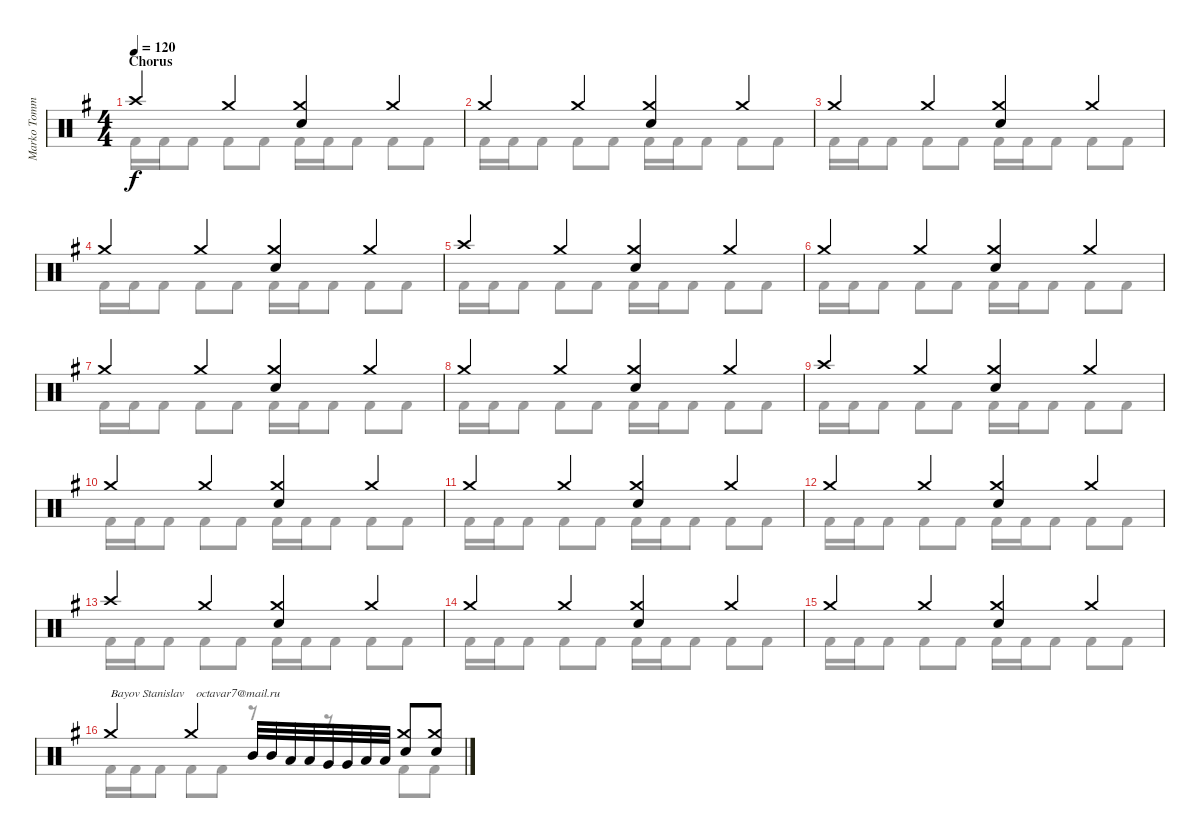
\track ("Marko Tommila (drums)" "Marko Tomm") {instrument percussion}
\staff {score}
\articulation defaults
\voice
\ts (4 4)
\section ("" "Chorus")
\tempo 120
\clef neutral
\ks eminor "Crash high (hit)".4{dy f} "Crash medium (hit)".4
("Crash medium (hit)" "Electric Snare (hit)").4 "Crash medium (hit)".4 |
"Crash medium (hit)".4 "Crash medium (hit)".4 ("Crash medium (hit)" "Electric Snare (hit)").4 "Crash medium (hit)".4 |
"Crash medium (hit)".4 "Crash medium (hit)".4 ("Crash medium (hit)" "Electric Snare (hit)").4 "Crash medium (hit)".4 |
"Crash medium (hit)".4 "Crash medium (hit)".4 ("Crash medium (hit)" "Electric Snare (hit)").4 "Crash medium (hit)".4 |
"Crash high (hit)".4 "Crash medium (hit)".4 ("Crash medium (hit)" "Electric Snare (hit)").4 "Crash medium (hit)".4 |
"Crash medium (hit)".4 "Crash medium (hit)".4 ("Crash medium (hit)" "Electric Snare (hit)").4 "Crash medium (hit)".4 |
"Crash medium (hit)".4 "Crash medium (hit)".4 ("Crash medium (hit)" "Electric Snare (hit)").4 "Crash medium (hit)".4 |
"Crash medium (hit)".4 "Crash medium (hit)".4 ("Crash medium (hit)" "Electric Snare (hit)").4 "Crash medium (hit)".4 |
"Crash high (hit)".4 "Crash medium (hit)".4 ("Crash medium (hit)" "Electric Snare (hit)").4 "Crash medium (hit)".4 |
"Crash medium (hit)".4 "Crash medium (hit)".4 ("Crash medium (hit)" "Electric Snare (hit)").4 "Crash medium (hit)".4 |
"Crash medium (hit)".4 "Crash medium (hit)".4 ("Crash medium (hit)" "Electric Snare (hit)").4 "Crash medium (hit)".4 |
"Crash medium (hit)".4 "Crash medium (hit)".4 ("Crash medium (hit)" "Electric Snare (hit)").4 "Crash medium (hit)".4 |
"Crash high (hit)".4 "Crash medium (hit)".4 ("Crash medium (hit)" "Electric Snare (hit)").4 "Crash medium (hit)".4 |
"Crash medium (hit)".4 "Crash medium (hit)".4 ("Crash medium (hit)" "Electric Snare (hit)").4 "Crash medium (hit)".4 |
"Crash medium (hit)".4 "Crash medium (hit)".4 ("Crash medium (hit)" "Electric Snare (hit)").4 "Crash medium (hit)".4 |
"Crash medium (hit)".4{txt "Bayov Stanislav    octavar7@mail.ru"} "Crash medium (hit)".4 "Mid Tom (hit)".32 "Mid Tom (hit)".32 "Low Tom (hit)".32 "Low Tom (hit)".32 "Very Low Tom (hit)".32 "Very Low Tom (hit)".32 "Low Floor Tom (hit)".32 "Low Floor Tom (hit)".32 ("Crash medium (hit)" "Electric Snare (hit)").8 ("Crash medium (hit)" "Electric Snare (hit)").8
\voice
\clef neutral
\ottava regular
\simile none
\ks eminor "Kick (hit) 2".16{dy f} "Kick (hit) 2".16 "Kick (hit) 2".8 "Kick (hit) 2".8 "Kick (hit) 2".8 "Kick (hit) 2".16 "Kick (hit) 2".16 "Kick (hit) 2".8 "Kick (hit) 2".8 "Kick (hit) 2".8
|
"Kick (hit) 2".16 "Kick (hit) 2".16 "Kick (hit) 2".8 "Kick (hit) 2".8 "Kick (hit) 2".8 "Kick (hit) 2".16 "Kick (hit) 2".16 "Kick (hit) 2".8 "Kick (hit) 2".8 "Kick (hit) 2".8 |
"Kick (hit) 2".16 "Kick (hit) 2".16 "Kick (hit) 2".8 "Kick (hit) 2".8 "Kick (hit) 2".8 "Kick (hit) 2".16 "Kick (hit) 2".16 "Kick (hit) 2".8 "Kick (hit) 2".8 "Kick (hit) 2".8 |
"Kick (hit) 2".16 "Kick (hit) 2".16 "Kick (hit) 2".8 "Kick (hit) 2".8 "Kick (hit) 2".8 "Kick (hit) 2".16 "Kick (hit) 2".16 "Kick (hit) 2".8 "Kick (hit) 2".8 "Kick (hit) 2".8 |
"Kick (hit) 2".16 "Kick (hit) 2".16 "Kick (hit) 2".8 "Kick (hit) 2".8 "Kick (hit) 2".8 "Kick (hit) 2".16 "Kick (hit) 2".16 "Kick (hit) 2".8 "Kick (hit) 2".8 "Kick (hit) 2".8 |
"Kick (hit) 2".16 "Kick (hit) 2".16 "Kick (hit) 2".8 "Kick (hit) 2".8 "Kick (hit) 2".8 "Kick (hit) 2".16 "Kick (hit) 2".16 "Kick (hit) 2".8 "Kick (hit) 2".8 "Kick (hit) 2".8 |
"Kick (hit) 2".16 "Kick (hit) 2".16 "Kick (hit) 2".8 "Kick (hit) 2".8 "Kick (hit) 2".8 "Kick (hit) 2".16 "Kick (hit) 2".16 "Kick (hit) 2".8 "Kick (hit) 2".8 "Kick (hit) 2".8 |
"Kick (hit) 2".16 "Kick (hit) 2".16 "Kick (hit) 2".8 "Kick (hit) 2".8 "Kick (hit) 2".8 "Kick (hit) 2".16 "Kick (hit) 2".16 "Kick (hit) 2".8 "Kick (hit) 2".8 "Kick (hit) 2".8 |
"Kick (hit) 2".16 "Kick (hit) 2".16 "Kick (hit) 2".8 "Kick (hit) 2".8 "Kick (hit) 2".8 "Kick (hit) 2".16 "Kick (hit) 2".16 "Kick (hit) 2".8 "Kick (hit) 2".8 "Kick (hit) 2".8 |
"Kick (hit) 2".16 "Kick (hit) 2".16 "Kick (hit) 2".8 "Kick (hit) 2".8 "Kick (hit) 2".8 "Kick (hit) 2".16 "Kick (hit) 2".16 "Kick (hit) 2".8 "Kick (hit) 2".8 "Kick (hit) 2".8 |
"Kick (hit) 2".16 "Kick (hit) 2".16 "Kick (hit) 2".8 "Kick (hit) 2".8 "Kick (hit) 2".8 "Kick (hit) 2".16 "Kick (hit) 2".16 "Kick (hit) 2".8 "Kick (hit) 2".8 "Kick (hit) 2".8 |
"Kick (hit) 2".16 "Kick (hit) 2".16 "Kick (hit) 2".8 "Kick (hit) 2".8 "Kick (hit) 2".8 "Kick (hit) 2".16 "Kick (hit) 2".16 "Kick (hit) 2".8 "Kick (hit) 2".8 "Kick (hit) 2".8 |
"Kick (hit) 2".16 "Kick (hit) 2".16 "Kick (hit) 2".8 "Kick (hit) 2".8 "Kick (hit) 2".8 "Kick (hit) 2".16 "Kick (hit) 2".16 "Kick (hit) 2".8 "Kick (hit) 2".8 "Kick (hit) 2".8 |
"Kick (hit) 2".16 "Kick (hit) 2".16 "Kick (hit) 2".8 "Kick (hit) 2".8 "Kick (hit) 2".8 "Kick (hit) 2".16 "Kick (hit) 2".16 "Kick (hit) 2".8 "Kick (hit) 2".8 "Kick (hit) 2".8 |
"Kick (hit) 2".16 "Kick (hit) 2".16 "Kick (hit) 2".8 "Kick (hit) 2".8 "Kick (hit) 2".8 "Kick (hit) 2".16 "Kick (hit) 2".16 "Kick (hit) 2".8 "Kick (hit) 2".8 "Kick (hit) 2".8 |
"Kick (hit) 2".16 "Kick (hit) 2".16 "Kick (hit) 2".8 "Kick (hit) 2".8 "Kick (hit) 2".8 r.8 r.8 "Kick (hit) 2".8 "Kick (hit) 2".8
